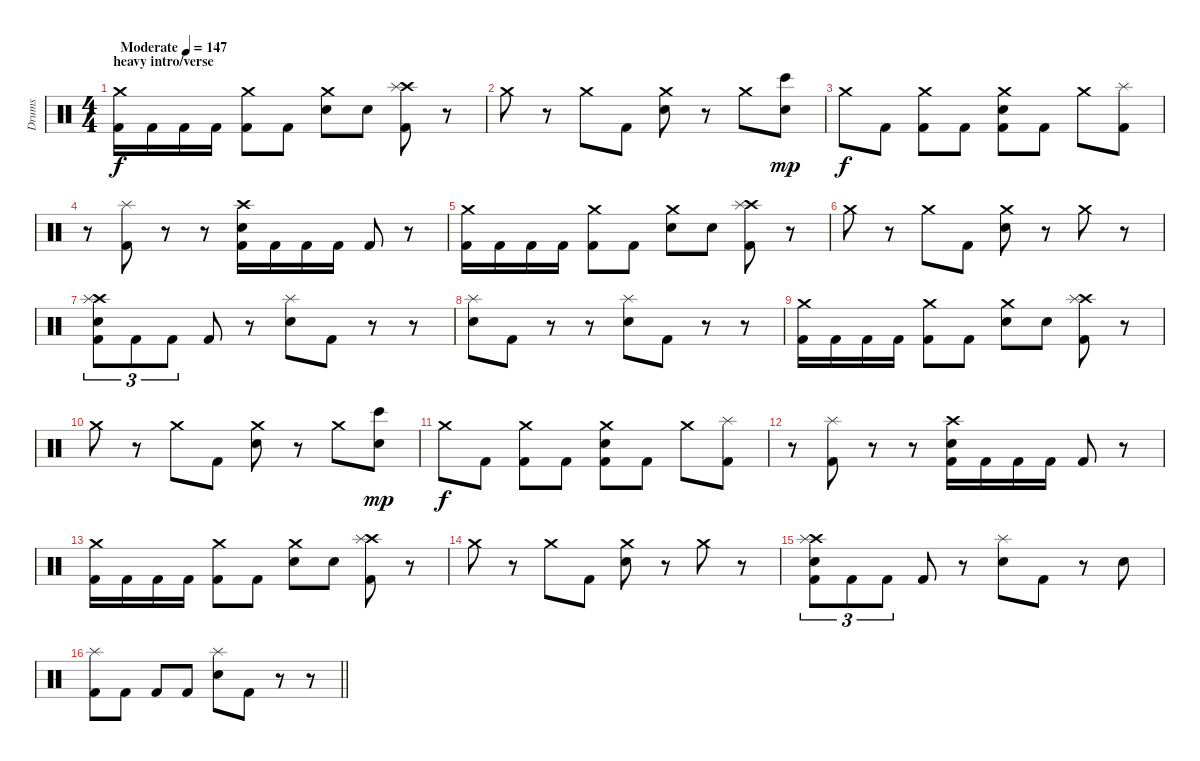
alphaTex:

\track ("Drums" "Drums") {instrument percussion}
\staff {score}
\articulation defaults
\ts (4 4)
\section ("" "heavy intro/verse")
\tempo (147 "Moderate")
\clef neutral
\ks c
("Crash medium (hit)" "Kick (hit) 2").16{dy f} "Kick (hit) 2".16 "Kick (hit) 2".16 "Kick (hit) 2".16 ("Crash medium (hit)" "Kick (hit) 2").8 "Kick (hit) 2".8 ("Crash medium (hit)" "Electric Snare (hit)").8 "Electric Snare (hit)".8 ("Crash high (hit)" "Splash (hit)" "Kick (hit) 2").8 r.8 |
"Crash medium (hit)".8 r.8 "Crash medium (hit)".8 "Kick (hit) 2".8 ("Crash medium (hit)" "Electric Snare (hit)").8 r.8 "Crash medium (hit)".8 ("Snare (hit) 2" "Bongo High (hit)").8{dy mp} |
"Crash medium (hit)".8{dy f} "Kick (hit) 2".8 ("Crash medium (hit)" "Kick (hit) 2").8 "Kick (hit) 2".8 ("Crash medium (hit)" "Electric Snare (hit)" "Kick (hit) 2").8 "Kick (hit) 2".8 "Crash medium (hit)".8 ("Splash (hit)" "Kick (hit) 2").8 |
r.8 ("Splash (hit)" "Kick (hit) 2").8 r.8 r.8 ("Crash high (hit)" "Electric Snare (hit)" "Kick (hit) 2").16 "Kick (hit) 2".16 "Kick (hit) 2".16 "Kick (hit) 2".16 "Kick (hit) 2".8 r.8 |
("Crash medium (hit)" "Kick (hit) 2").16 "Kick (hit) 2".16 "Kick (hit) 2".16 "Kick (hit) 2".16 ("Crash medium (hit)" "Kick (hit) 2").8 "Kick (hit) 2".8 ("Crash medium (hit)" "Electric Snare (hit)").8 "Electric Snare (hit)".8 ("Crash high (hit)" "Splash (hit)" "Kick (hit) 2").8 r.8 |
"Crash medium (hit)".8 r.8 "Crash medium (hit)".8 "Kick (hit) 2".8 ("Crash medium (hit)" "Electric Snare (hit)").8 r.8 "Crash medium (hit)".8 r.8 |
("Crash high (hit)" "Splash (hit)" "Electric Snare (hit)" "Kick (hit) 2").8{tu (3 2)} "Kick (hit) 2".8{tu (3 2)} "Kick (hit) 2".8{tu (3 2)} "Kick (hit) 2".8 r.8 ("Splash (hit)" "Electric Snare (hit)").8 "Kick (hit) 2".8 r.8 r.8 |
("Splash (hit)" "Electric Snare (hit)").8 "Kick (hit) 2".8 r.8 r.8 ("Splash (hit)" "Electric Snare (hit)").8 "Kick (hit) 2".8 r.8 r.8 |
("Crash medium (hit)" "Kick (hit) 2").16 "Kick (hit) 2".16 "Kick (hit) 2".16 "Kick (hit) 2".16 ("Crash medium (hit)" "Kick (hit) 2").8 "Kick (hit) 2".8 ("Crash medium (hit)" "Electric Snare (hit)").8 "Electric Snare (hit)".8 ("Crash high (hit)" "Splash (hit)" "Kick (hit) 2").8 r.8 |
"Crash medium (hit)".8 r.8 "Crash medium (hit)".8 "Kick (hit) 2".8 ("Crash medium (hit)" "Electric Snare (hit)").8 r.8 "Crash medium (hit)".8 ("Snare (hit) 2" "Bongo High (hit)").8{dy mp} |
"Crash medium (hit)".8{dy f} "Kick (hit) 2".8 ("Crash medium (hit)" "Kick (hit) 2").8 "Kick (hit) 2".8 ("Crash medium (hit)" "Electric Snare (hit)" "Kick (hit) 2").8 "Kick (hit) 2".8 "Crash medium (hit)".8 ("Splash (hit)" "Kick (hit) 2").8 |
r.8 ("Splash (hit)" "Kick (hit) 2").8 r.8 r.8 ("Crash high (hit)" "Electric Snare (hit)" "Kick (hit) 2").16 "Kick (hit) 2".16 "Kick (hit) 2".16 "Kick (hit) 2".16 "Kick (hit) 2".8 r.8 |
("Crash medium (hit)" "Kick (hit) 2").16 "Kick (hit) 2".16 "Kick (hit) 2".16 "Kick (hit) 2".16 ("Crash medium (hit)" "Kick (hit) 2").8 "Kick (hit) 2".8 ("Crash medium (hit)" "Electric Snare (hit)").8 "Electric Snare (hit)".8 ("Crash high (hit)" "Splash (hit)" "Kick (hit) 2").8 r.8 |
"Crash medium (hit)".8 r.8 "Crash medium (hit)".8 "Kick (hit) 2".8 ("Crash medium (hit)" "Electric Snare (hit)").8 r.8 "Crash medium (hit)".8 r.8 |
("Crash high (hit)" "Splash (hit)" "Electric Snare (hit)" "Kick (hit) 2").8{tu (3 2)} "Kick (hit) 2".8{tu (3 2)} "Kick (hit) 2".8{tu (3 2)} "Kick (hit) 2".8 r.8 ("Splash (hit)" "Electric Snare (hit)").8 "Kick (hit) 2".8 r.8 "Electric Snare (hit)".8 |
\barLineRight lightlight
("Splash (hit)" "Kick (hit) 2").8 "Kick (hit) 2".8 "Kick (hit) 2".8 "Kick (hit) 2".8 ("Splash (hit)" "Electric Snare (hit)").8 "Kick (hit) 2".8 r.8 r.8
